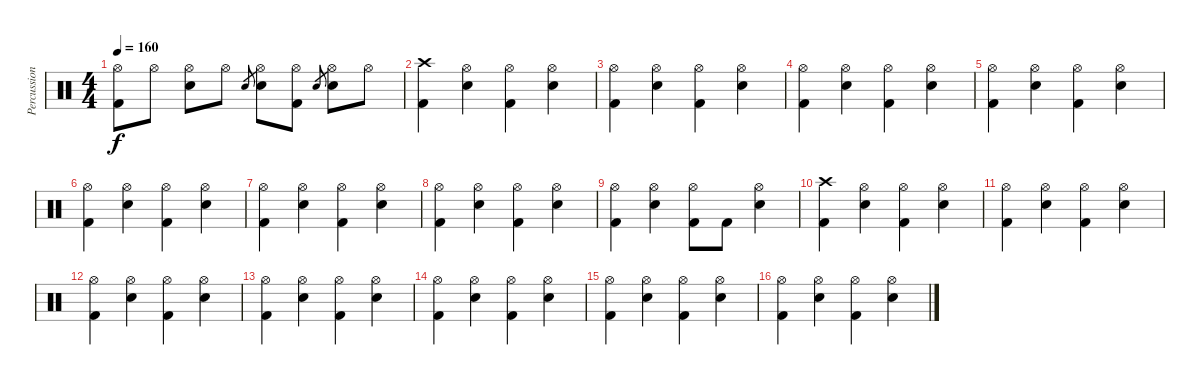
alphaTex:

\track ("Percussioni" "Percussion") {instrument percussion}
\staff {score}
\articulation defaults
\ts (4 4)
\tempo 160
\clef neutral
\ks c
("Hi-Hat (open)" "Kick (hit) 2").8{dy f} "Hi-Hat (open)".8 ("Hi-Hat (open)" "Electric Snare (hit)").8 "Hi-Hat (open)".8 "Electric Snare (hit)".8{gr} ("Hi-Hat (open)" "Electric Snare (hit)").8 ("Hi-Hat (open)" "Kick (hit) 2").8 "Electric Snare (hit)".8{gr} ("Hi-Hat (open)" "Electric Snare (hit)").8 "Hi-Hat (open)".8 |
("Crash high (hit)" "Kick (hit) 2").4 ("Hi-Hat (open)" "Electric Snare (hit)").4 ("Hi-Hat (open)" "Kick (hit) 2").4 ("Hi-Hat (open)" "Electric Snare (hit)").4 |
("Hi-Hat (open)" "Kick (hit) 2").4 ("Hi-Hat (open)" "Electric Snare (hit)").4 ("Hi-Hat (open)" "Kick (hit) 2").4 ("Hi-Hat (open)" "Electric Snare (hit)").4 |
("Hi-Hat (open)" "Kick (hit) 2").4 ("Hi-Hat (open)" "Electric Snare (hit)").4 ("Hi-Hat (open)" "Kick (hit) 2").4 ("Hi-Hat (open)" "Electric Snare (hit)").4 |
("Hi-Hat (open)" "Kick (hit) 2").4 ("Hi-Hat (open)" "Electric Snare (hit)").4 ("Hi-Hat (open)" "Kick (hit) 2").4 ("Hi-Hat (open)" "Electric Snare (hit)").4 |
("Hi-Hat (open)" "Kick (hit) 2").4 ("Hi-Hat (open)" "Electric Snare (hit)").4 ("Hi-Hat (open)" "Kick (hit) 2").4 ("Hi-Hat (open)" "Electric Snare (hit)").4 |
("Hi-Hat (open)" "Kick (hit) 2").4 ("Hi-Hat (open)" "Electric Snare (hit)").4 ("Hi-Hat (open)" "Kick (hit) 2").4 ("Hi-Hat (open)" "Electric Snare (hit)").4 |
("Hi-Hat (open)" "Kick (hit) 2").4 ("Hi-Hat (open)" "Electric Snare (hit)").4 ("Hi-Hat (open)" "Kick (hit) 2").4 ("Hi-Hat (open)" "Electric Snare (hit)").4 |
("Hi-Hat (open)" "Kick (hit) 2").4 ("Hi-Hat (open)" "Electric Snare (hit)").4 ("Hi-Hat (open)" "Kick (hit) 2").8 "Kick (hit) 2".8 ("Hi-Hat (open)" "Electric Snare (hit)").4 |
("Crash high (hit)" "Kick (hit) 2").4 ("Hi-Hat (open)" "Electric Snare (hit)").4 ("Hi-Hat (open)" "Kick (hit) 2").4 ("Hi-Hat (open)" "Electric Snare (hit)").4 |
("Hi-Hat (open)" "Kick (hit) 2").4 ("Hi-Hat (open)" "Electric Snare (hit)").4 ("Hi-Hat (open)" "Kick (hit) 2").4 ("Hi-Hat (open)" "Electric Snare (hit)").4 |
("Hi-Hat (open)" "Kick (hit) 2").4 ("Hi-Hat (open)" "Electric Snare (hit)").4 ("Hi-Hat (open)" "Kick (hit) 2").4 ("Hi-Hat (open)" "Electric Snare (hit)").4 |
("Hi-Hat (open)" "Kick (hit) 2").4 ("Hi-Hat (open)" "Electric Snare (hit)").4 ("Hi-Hat (open)" "Kick (hit) 2").4 ("Hi-Hat (open)" "Electric Snare (hit)").4 |
("Hi-Hat (open)" "Kick (hit) 2").4 ("Hi-Hat (open)" "Electric Snare (hit)").4 ("Hi-Hat (open)" "Kick (hit) 2").4 ("Hi-Hat (open)" "Electric Snare (hit)").4 |
("Hi-Hat (open)" "Kick (hit) 2").4 ("Hi-Hat (open)" "Electric Snare (hit)").4 ("Hi-Hat (open)" "Kick (hit) 2").4 ("Hi-Hat (open)" "Electric Snare (hit)").4 |
("Hi-Hat (open)" "Kick (hit) 2").4 ("Hi-Hat (open)" "Electric Snare (hit)").4 ("Hi-Hat (open)" "Kick (hit) 2").4 ("Hi-Hat (open)" "Electric Snare (hit)").4
